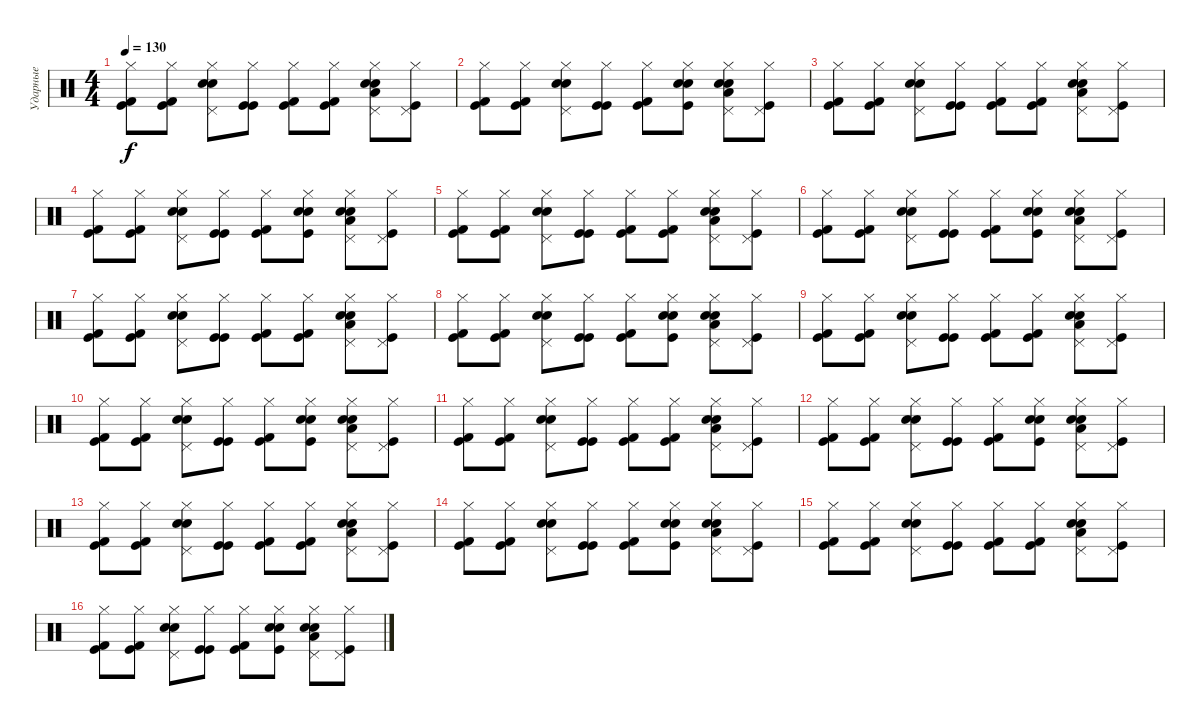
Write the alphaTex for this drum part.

\track ("Ударные" "Ударные") {instrument percussion}
\staff {score}
\articulation defaults
\ts (4 4)
\tempo 130
\clef neutral
\ks c
("Kick (hit)" "Kick (hit) 2" "Hi-Hat (closed)").8{dy f} ("Kick (hit)" "Kick (hit) 2" "Hi-Hat (closed)").8 ("Electric Snare (hit)" "Pedal Hi-Hat (hit)" "Hi-Hat (closed)" "Snare (hit) 2").8 ("Kick (hit)" "Kick (hit)" "Hi-Hat (closed)").8 ("Kick (hit)" "Kick (hit) 2" "Hi-Hat (closed)").8 ("Kick (hit)" "Kick (hit) 2" "Hi-Hat (closed)").8 ("Low Tom (hit)" "Electric Snare (hit)" "Pedal Hi-Hat (hit)" "Hi-Hat (closed)" "Snare (hit) 2").8 ("Pedal Hi-Hat (hit)" "Kick (hit)" "Hi-Hat (closed)").8 |
("Kick (hit)" "Kick (hit) 2" "Hi-Hat (closed)").8 ("Kick (hit)" "Kick (hit) 2" "Hi-Hat (closed)").8 ("Snare (hit) 2" "Electric Snare (hit)" "Pedal Hi-Hat (hit)" "Hi-Hat (closed)").8 ("Kick (hit)" "Kick (hit)" "Hi-Hat (closed)").8 ("Kick (hit)" "Kick (hit) 2" "Hi-Hat (closed)").8 ("Kick (hit)" "Electric Snare (hit)" "Hi-Hat (closed)" "Snare (hit) 2").8 ("Low Tom (hit)" "Electric Snare (hit)" "Pedal Hi-Hat (hit)" "Hi-Hat (closed)" "Snare (hit) 2").8 ("Pedal Hi-Hat (hit)" "Kick (hit)" "Hi-Hat (closed)").8 |
("Kick (hit)" "Kick (hit) 2" "Hi-Hat (closed)").8 ("Kick (hit)" "Kick (hit) 2" "Hi-Hat (closed)").8 ("Electric Snare (hit)" "Pedal Hi-Hat (hit)" "Hi-Hat (closed)" "Snare (hit) 2").8 ("Kick (hit)" "Kick (hit)" "Hi-Hat (closed)").8 ("Kick (hit)" "Kick (hit) 2" "Hi-Hat (closed)").8 ("Kick (hit)" "Kick (hit) 2" "Hi-Hat (closed)").8 ("Low Tom (hit)" "Electric Snare (hit)" "Pedal Hi-Hat (hit)" "Hi-Hat (closed)" "Snare (hit) 2").8 ("Pedal Hi-Hat (hit)" "Kick (hit)" "Hi-Hat (closed)").8 |
("Kick (hit)" "Kick (hit) 2" "Hi-Hat (closed)").8 ("Kick (hit)" "Kick (hit) 2" "Hi-Hat (closed)").8 ("Snare (hit) 2" "Electric Snare (hit)" "Pedal Hi-Hat (hit)" "Hi-Hat (closed)").8 ("Kick (hit)" "Kick (hit)" "Hi-Hat (closed)").8 ("Kick (hit)" "Kick (hit) 2" "Hi-Hat (closed)").8 ("Kick (hit)" "Electric Snare (hit)" "Hi-Hat (closed)" "Snare (hit) 2").8 ("Low Tom (hit)" "Electric Snare (hit)" "Pedal Hi-Hat (hit)" "Hi-Hat (closed)" "Snare (hit) 2").8 ("Pedal Hi-Hat (hit)" "Kick (hit)" "Hi-Hat (closed)").8 |
("Kick (hit)" "Kick (hit) 2" "Hi-Hat (closed)").8 ("Kick (hit)" "Kick (hit) 2" "Hi-Hat (closed)").8 ("Electric Snare (hit)" "Pedal Hi-Hat (hit)" "Hi-Hat (closed)" "Snare (hit) 2").8 ("Kick (hit)" "Kick (hit)" "Hi-Hat (closed)").8 ("Kick (hit)" "Kick (hit) 2" "Hi-Hat (closed)").8 ("Kick (hit)" "Kick (hit) 2" "Hi-Hat (closed)").8 ("Low Tom (hit)" "Electric Snare (hit)" "Pedal Hi-Hat (hit)" "Hi-Hat (closed)" "Snare (hit) 2").8 ("Pedal Hi-Hat (hit)" "Kick (hit)" "Hi-Hat (closed)").8 |
("Kick (hit)" "Kick (hit) 2" "Hi-Hat (closed)").8 ("Kick (hit)" "Kick (hit) 2" "Hi-Hat (closed)").8 ("Snare (hit) 2" "Electric Snare (hit)" "Pedal Hi-Hat (hit)" "Hi-Hat (closed)").8 ("Kick (hit)" "Kick (hit)" "Hi-Hat (closed)").8 ("Kick (hit)" "Kick (hit) 2" "Hi-Hat (closed)").8 ("Kick (hit)" "Electric Snare (hit)" "Hi-Hat (closed)" "Snare (hit) 2").8 ("Low Tom (hit)" "Electric Snare (hit)" "Pedal Hi-Hat (hit)" "Hi-Hat (closed)" "Snare (hit) 2").8 ("Pedal Hi-Hat (hit)" "Kick (hit)" "Hi-Hat (closed)").8 |
("Kick (hit)" "Kick (hit) 2" "Hi-Hat (closed)").8 ("Kick (hit)" "Kick (hit) 2" "Hi-Hat (closed)").8 ("Electric Snare (hit)" "Pedal Hi-Hat (hit)" "Hi-Hat (closed)" "Snare (hit) 2").8 ("Kick (hit)" "Kick (hit)" "Hi-Hat (closed)").8 ("Kick (hit)" "Kick (hit) 2" "Hi-Hat (closed)").8 ("Kick (hit)" "Kick (hit) 2" "Hi-Hat (closed)").8 ("Low Tom (hit)" "Electric Snare (hit)" "Pedal Hi-Hat (hit)" "Hi-Hat (closed)" "Snare (hit) 2").8 ("Pedal Hi-Hat (hit)" "Kick (hit)" "Hi-Hat (closed)").8 |
("Kick (hit)" "Kick (hit) 2" "Hi-Hat (closed)").8 ("Kick (hit)" "Kick (hit) 2" "Hi-Hat (closed)").8 ("Snare (hit) 2" "Electric Snare (hit)" "Pedal Hi-Hat (hit)" "Hi-Hat (closed)").8 ("Kick (hit)" "Kick (hit)" "Hi-Hat (closed)").8 ("Kick (hit)" "Kick (hit) 2" "Hi-Hat (closed)").8 ("Kick (hit)" "Electric Snare (hit)" "Hi-Hat (closed)" "Snare (hit) 2").8 ("Low Tom (hit)" "Electric Snare (hit)" "Pedal Hi-Hat (hit)" "Hi-Hat (closed)" "Snare (hit) 2").8 ("Pedal Hi-Hat (hit)" "Kick (hit)" "Hi-Hat (closed)").8 |
("Kick (hit)" "Kick (hit) 2" "Hi-Hat (closed)").8 ("Kick (hit)" "Kick (hit) 2" "Hi-Hat (closed)").8 ("Electric Snare (hit)" "Pedal Hi-Hat (hit)" "Hi-Hat (closed)" "Snare (hit) 2").8 ("Kick (hit)" "Kick (hit)" "Hi-Hat (closed)").8 ("Kick (hit)" "Kick (hit) 2" "Hi-Hat (closed)").8 ("Kick (hit)" "Kick (hit) 2" "Hi-Hat (closed)").8 ("Low Tom (hit)" "Electric Snare (hit)" "Pedal Hi-Hat (hit)" "Hi-Hat (closed)" "Snare (hit) 2").8 ("Pedal Hi-Hat (hit)" "Kick (hit)" "Hi-Hat (closed)").8 |
("Kick (hit)" "Kick (hit) 2" "Hi-Hat (closed)").8 ("Kick (hit)" "Kick (hit) 2" "Hi-Hat (closed)").8 ("Snare (hit) 2" "Electric Snare (hit)" "Pedal Hi-Hat (hit)" "Hi-Hat (closed)").8 ("Kick (hit)" "Kick (hit)" "Hi-Hat (closed)").8 ("Kick (hit)" "Kick (hit) 2" "Hi-Hat (closed)").8 ("Kick (hit)" "Electric Snare (hit)" "Hi-Hat (closed)" "Snare (hit) 2").8 ("Low Tom (hit)" "Electric Snare (hit)" "Pedal Hi-Hat (hit)" "Hi-Hat (closed)" "Snare (hit) 2").8 ("Pedal Hi-Hat (hit)" "Kick (hit)" "Hi-Hat (closed)").8 |
("Kick (hit)" "Kick (hit) 2" "Hi-Hat (closed)").8 ("Kick (hit)" "Kick (hit) 2" "Hi-Hat (closed)").8 ("Electric Snare (hit)" "Pedal Hi-Hat (hit)" "Hi-Hat (closed)" "Snare (hit) 2").8 ("Kick (hit)" "Kick (hit)" "Hi-Hat (closed)").8 ("Kick (hit)" "Kick (hit) 2" "Hi-Hat (closed)").8 ("Kick (hit)" "Kick (hit) 2" "Hi-Hat (closed)").8 ("Low Tom (hit)" "Electric Snare (hit)" "Pedal Hi-Hat (hit)" "Hi-Hat (closed)" "Snare (hit) 2").8 ("Pedal Hi-Hat (hit)" "Kick (hit)" "Hi-Hat (closed)").8 |
("Kick (hit)" "Kick (hit) 2" "Hi-Hat (closed)").8 ("Kick (hit)" "Kick (hit) 2" "Hi-Hat (closed)").8 ("Snare (hit) 2" "Electric Snare (hit)" "Pedal Hi-Hat (hit)" "Hi-Hat (closed)").8 ("Kick (hit)" "Kick (hit)" "Hi-Hat (closed)").8 ("Kick (hit)" "Kick (hit) 2" "Hi-Hat (closed)").8 ("Kick (hit)" "Electric Snare (hit)" "Hi-Hat (closed)" "Snare (hit) 2").8 ("Low Tom (hit)" "Electric Snare (hit)" "Pedal Hi-Hat (hit)" "Hi-Hat (closed)" "Snare (hit) 2").8 ("Pedal Hi-Hat (hit)" "Kick (hit)" "Hi-Hat (closed)").8 |
("Kick (hit)" "Kick (hit) 2" "Hi-Hat (closed)").8 ("Kick (hit)" "Kick (hit) 2" "Hi-Hat (closed)").8 ("Electric Snare (hit)" "Pedal Hi-Hat (hit)" "Hi-Hat (closed)" "Snare (hit) 2").8 ("Kick (hit)" "Kick (hit)" "Hi-Hat (closed)").8 ("Kick (hit)" "Kick (hit) 2" "Hi-Hat (closed)").8 ("Kick (hit)" "Kick (hit) 2" "Hi-Hat (closed)").8 ("Low Tom (hit)" "Electric Snare (hit)" "Pedal Hi-Hat (hit)" "Hi-Hat (closed)" "Snare (hit) 2").8 ("Pedal Hi-Hat (hit)" "Kick (hit)" "Hi-Hat (closed)").8 |
("Kick (hit)" "Kick (hit) 2" "Hi-Hat (closed)").8 ("Kick (hit)" "Kick (hit) 2" "Hi-Hat (closed)").8 ("Snare (hit) 2" "Electric Snare (hit)" "Pedal Hi-Hat (hit)" "Hi-Hat (closed)").8 ("Kick (hit)" "Kick (hit)" "Hi-Hat (closed)").8 ("Kick (hit)" "Kick (hit) 2" "Hi-Hat (closed)").8 ("Kick (hit)" "Electric Snare (hit)" "Hi-Hat (closed)" "Snare (hit) 2").8 ("Low Tom (hit)" "Electric Snare (hit)" "Pedal Hi-Hat (hit)" "Hi-Hat (closed)" "Snare (hit) 2").8 ("Pedal Hi-Hat (hit)" "Kick (hit)" "Hi-Hat (closed)").8 |
("Kick (hit)" "Kick (hit) 2" "Hi-Hat (closed)").8 ("Kick (hit)" "Kick (hit) 2" "Hi-Hat (closed)").8 ("Electric Snare (hit)" "Pedal Hi-Hat (hit)" "Hi-Hat (closed)" "Snare (hit) 2").8 ("Kick (hit)" "Kick (hit)" "Hi-Hat (closed)").8 ("Kick (hit)" "Kick (hit) 2" "Hi-Hat (closed)").8 ("Kick (hit)" "Kick (hit) 2" "Hi-Hat (closed)").8 ("Low Tom (hit)" "Electric Snare (hit)" "Pedal Hi-Hat (hit)" "Hi-Hat (closed)" "Snare (hit) 2").8 ("Pedal Hi-Hat (hit)" "Kick (hit)" "Hi-Hat (closed)").8 |
("Kick (hit)" "Kick (hit) 2" "Hi-Hat (closed)").8 ("Kick (hit)" "Kick (hit) 2" "Hi-Hat (closed)").8 ("Snare (hit) 2" "Electric Snare (hit)" "Pedal Hi-Hat (hit)" "Hi-Hat (closed)").8 ("Kick (hit)" "Kick (hit)" "Hi-Hat (closed)").8 ("Kick (hit)" "Kick (hit) 2" "Hi-Hat (closed)").8 ("Kick (hit)" "Electric Snare (hit)" "Hi-Hat (closed)" "Snare (hit) 2").8 ("Low Tom (hit)" "Electric Snare (hit)" "Pedal Hi-Hat (hit)" "Hi-Hat (closed)" "Snare (hit) 2").8 ("Pedal Hi-Hat (hit)" "Kick (hit)" "Hi-Hat (closed)").8
